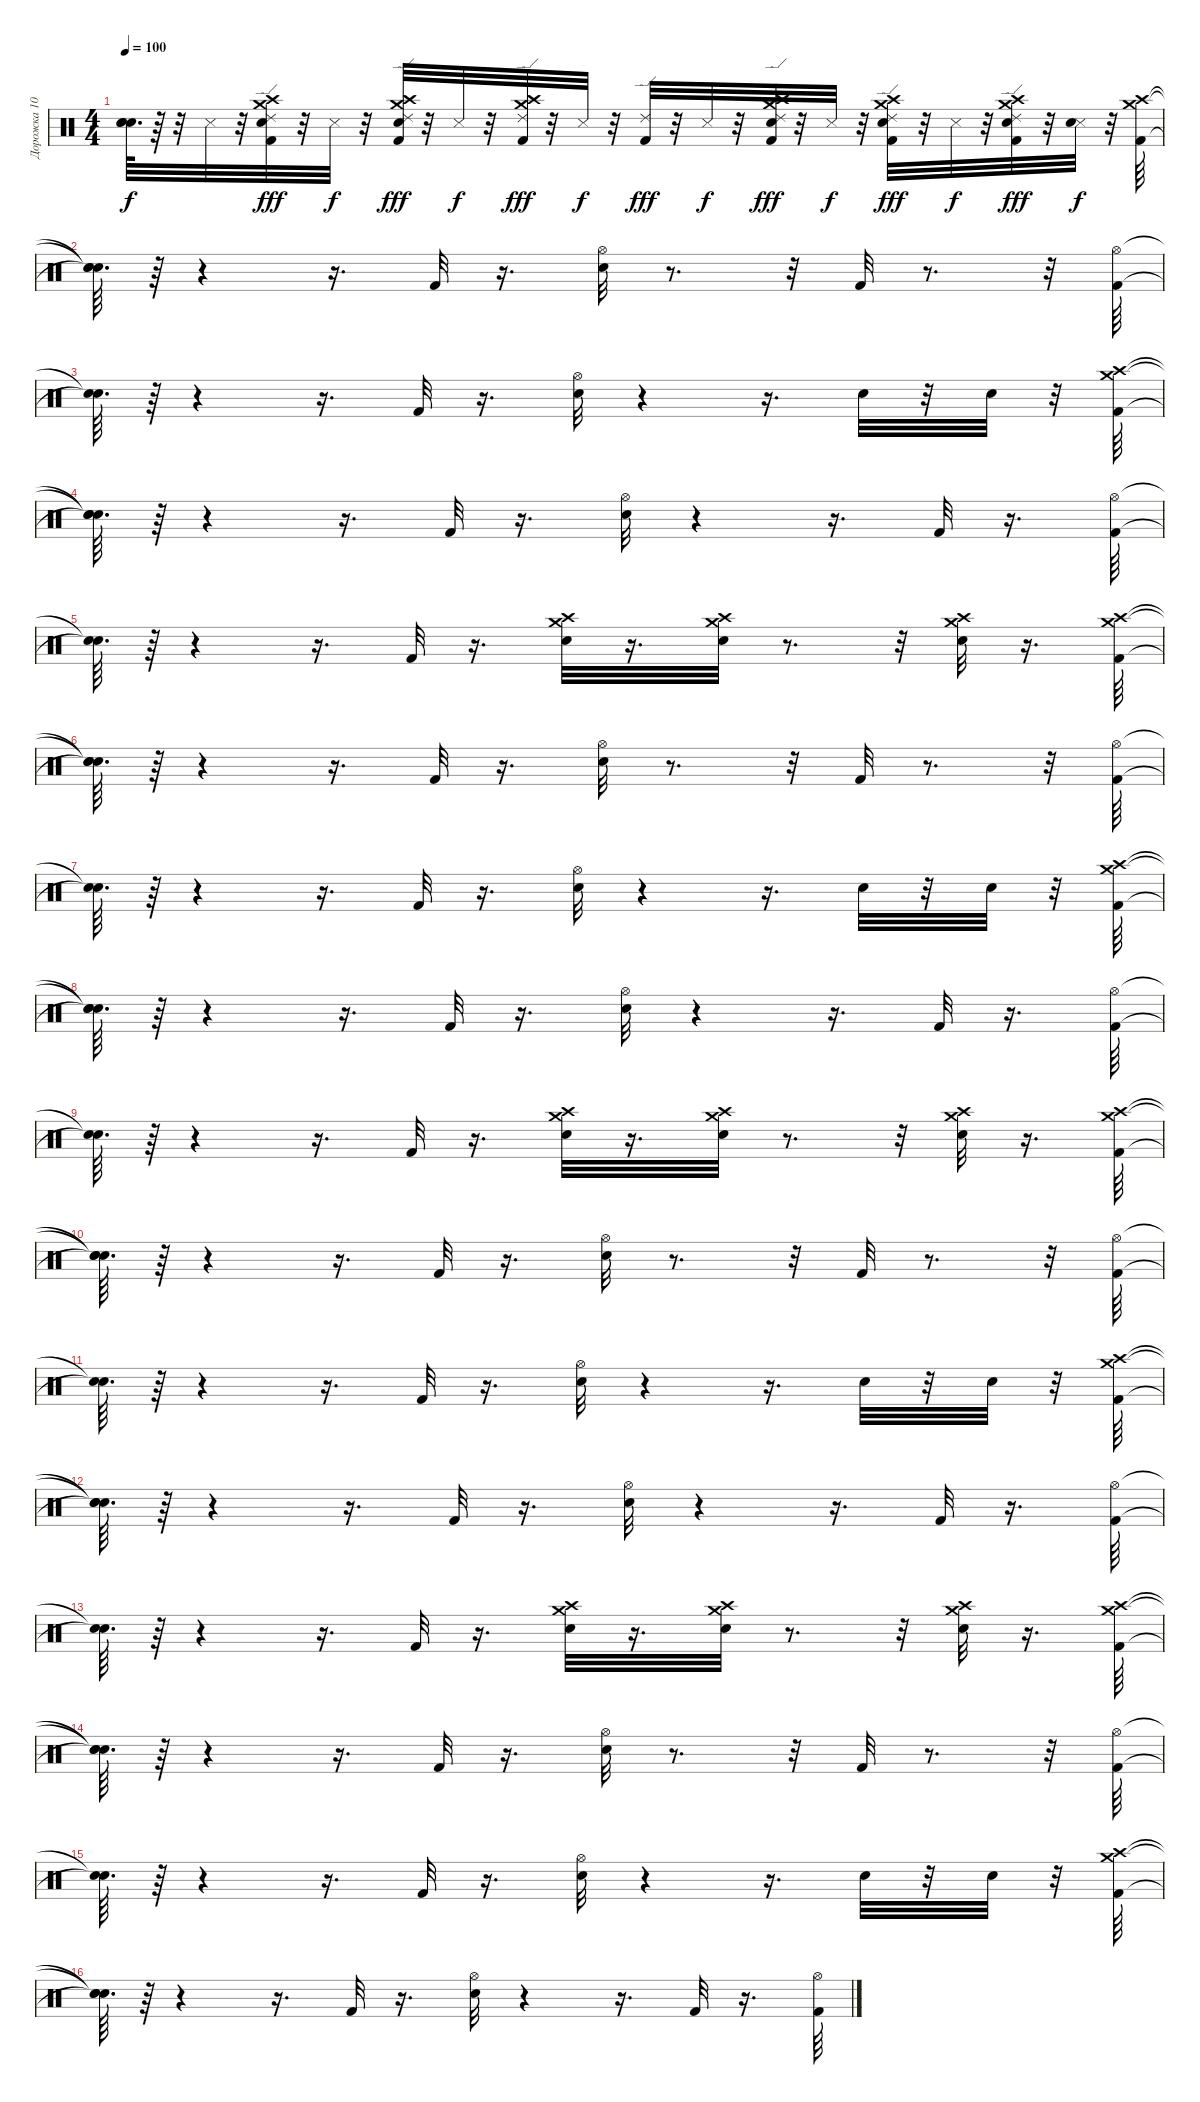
\track ("Дорожка 10" "Дорожка 10") {instrument percussion}
\staff {score}
\articulation defaults
\ts (4 4)
\tempo 100
\clef neutral
\ks c
("Snare (hit)"{t} "Snare (hit)"{t} "Snare (hit)"{t}).64{d dy f} r.64 r.32 "Metronome (hit)".32 r.32 ("Kick (hit) 2" "Crash medium (hit)" "Crash high (hit)" "Snare (hit) 2" "Ride (edge) 2").32{dy fff} r.32 "Metronome (hit)".32{dy f} r.32 ("Kick (hit) 2" "Crash high (hit)" "Crash medium (hit)" "Snare (hit) 2" "Ride (edge) 2").32{dy fff} r.32 "Metronome (hit)".32{dy f} r.32 ("Kick (hit) 2" "Crash medium (hit)" "Crash high (hit)" "Ride (edge) 2").32{dy fff} r.32 "Metronome (hit)".32{dy f} r.32 ("Kick (hit) 2" "Ride (edge) 2").32{dy fff} r.32 "Metronome (hit)".32{dy f} r.32 ("Kick (hit) 2" "Crash medium (hit)" "Crash high (hit)" "Snare (hit) 2" "Ride (edge) 2").32{dy fff} r.32 "Metronome (hit)".32{dy f} r.32 ("Kick (hit) 2" "Crash medium (hit)" "Crash high (hit)" "Snare (hit) 2" "Ride (edge) 2").32{dy fff} r.32 "Metronome (hit)".32{dy f} r.32 ("Kick (hit) 2" "Snare (hit) 2" "Crash medium (hit)" "Crash high (hit)" "Ride (edge) 2").32{dy fff} r.32 ("Metronome (hit)" "Snare (hit) 2").32{dy f} r.32 ("Crash medium (hit)" "Crash high (hit)" "Kick (hit) 2").64 |
("Snare (hit)"{t} "Snare (hit)"{t} "Snare (hit)"{t}).64{d} r.64 r.4 r.16{d} "Kick (hit) 2".32 r.16{d} ("Snare (hit) 2" "Hi-Hat (open)").32 r.8{d} r.32 "Kick (hit) 2".32 r.8{d} r.32 ("Hi-Hat (open)" "Kick (hit) 2").64 |
("Snare (hit)"{t} "Snare (hit)"{t}).64{d} r.64 r.4 r.16{d} "Kick (hit) 2".32 r.16{d} ("Snare (hit) 2" "Hi-Hat (open)").32 r.4 r.16{d} "Snare (hit) 2".32 r.32 "Snare (hit) 2".32 r.32 ("Crash high (hit)" "Crash medium (hit)" "Kick (hit) 2").64 |
("Snare (hit)"{t} "Snare (hit)"{t} "Snare (hit)"{t}).64{d} r.64 r.4 r.16{d} "Kick (hit) 2".32 r.16{d} ("Hi-Hat (open)" "Snare (hit) 2").32 r.4 r.16{d} "Kick (hit) 2".32 r.16{d} ("Hi-Hat (open)" "Kick (hit) 2").64 |
("Snare (hit)"{t} "Snare (hit)"{t}).64{d} r.64 r.4 r.16{d} "Kick (hit) 2".32 r.16{d} ("Crash high (hit)" "Crash medium (hit)" "Snare (hit) 2").32 r.16{d} ("Crash high (hit)" "Crash medium (hit)" "Snare (hit) 2").32 r.8{d} r.32 ("Crash medium (hit)" "Crash high (hit)" "Snare (hit) 2").32 r.16{d} ("Crash medium (hit)" "Crash high (hit)" "Kick (hit) 2").64 |
("Snare (hit)"{t} "Snare (hit)"{t} "Snare (hit)"{t}).64{d} r.64 r.4 r.16{d} "Kick (hit) 2".32 r.16{d} ("Snare (hit) 2" "Hi-Hat (open)").32 r.8{d} r.32 "Kick (hit) 2".32 r.8{d} r.32 ("Hi-Hat (open)" "Kick (hit) 2").64 |
("Snare (hit)"{t} "Snare (hit)"{t}).64{d} r.64 r.4 r.16{d} "Kick (hit) 2".32 r.16{d} ("Snare (hit) 2" "Hi-Hat (open)").32 r.4 r.16{d} "Snare (hit) 2".32 r.32 "Snare (hit) 2".32 r.32 ("Crash high (hit)" "Crash medium (hit)" "Kick (hit) 2").64 |
("Snare (hit)"{t} "Snare (hit)"{t} "Snare (hit)"{t}).64{d} r.64 r.4 r.16{d} "Kick (hit) 2".32 r.16{d} ("Hi-Hat (open)" "Snare (hit) 2").32 r.4 r.16{d} "Kick (hit) 2".32 r.16{d} ("Hi-Hat (open)" "Kick (hit) 2").64 |
("Snare (hit)"{t} "Snare (hit)"{t}).64{d} r.64 r.4 r.16{d} "Kick (hit) 2".32 r.16{d} ("Crash high (hit)" "Crash medium (hit)" "Snare (hit) 2").32 r.16{d} ("Crash high (hit)" "Crash medium (hit)" "Snare (hit) 2").32 r.8{d} r.32 ("Crash medium (hit)" "Crash high (hit)" "Snare (hit) 2").32 r.16{d} ("Crash medium (hit)" "Crash high (hit)" "Kick (hit) 2").64 |
("Snare (hit)"{t} "Snare (hit)"{t} "Snare (hit)"{t}).64{d} r.64 r.4 r.16{d} "Kick (hit) 2".32 r.16{d} ("Snare (hit) 2" "Hi-Hat (open)").32 r.8{d} r.32 "Kick (hit) 2".32 r.8{d} r.32 ("Hi-Hat (open)" "Kick (hit) 2").64 |
("Snare (hit)"{t} "Snare (hit)"{t}).64{d} r.64 r.4 r.16{d} "Kick (hit) 2".32 r.16{d} ("Snare (hit) 2" "Hi-Hat (open)").32 r.4 r.16{d} "Snare (hit) 2".32 r.32 "Snare (hit) 2".32 r.32 ("Crash high (hit)" "Crash medium (hit)" "Kick (hit) 2").64 |
("Snare (hit)"{t} "Snare (hit)"{t} "Snare (hit)"{t}).64{d} r.64 r.4 r.16{d} "Kick (hit) 2".32 r.16{d} ("Hi-Hat (open)" "Snare (hit) 2").32 r.4 r.16{d} "Kick (hit) 2".32 r.16{d} ("Hi-Hat (open)" "Kick (hit) 2").64 |
("Snare (hit)"{t} "Snare (hit)"{t}).64{d} r.64 r.4 r.16{d} "Kick (hit) 2".32 r.16{d} ("Crash high (hit)" "Crash medium (hit)" "Snare (hit) 2").32 r.16{d} ("Crash high (hit)" "Crash medium (hit)" "Snare (hit) 2").32 r.8{d} r.32 ("Crash medium (hit)" "Crash high (hit)" "Snare (hit) 2").32 r.16{d} ("Crash medium (hit)" "Crash high (hit)" "Kick (hit) 2").64 |
("Snare (hit)"{t} "Snare (hit)"{t} "Snare (hit)"{t}).64{d} r.64 r.4 r.16{d} "Kick (hit) 2".32 r.16{d} ("Snare (hit) 2" "Hi-Hat (open)").32 r.8{d} r.32 "Kick (hit) 2".32 r.8{d} r.32 ("Hi-Hat (open)" "Kick (hit) 2").64{volume 16 balance 8} |
("Snare (hit)"{t} "Snare (hit)"{t}).64{d} r.64 r.4 r.16{d} "Kick (hit) 2".32 r.16{d} ("Snare (hit) 2" "Hi-Hat (open)").32 r.4 r.16{d} "Snare (hit) 2".32 r.32 "Snare (hit) 2".32 r.32 ("Crash high (hit)" "Crash medium (hit)" "Kick (hit) 2").64 |
("Snare (hit)"{t} "Snare (hit)"{t} "Snare (hit)"{t}).64{d} r.64 r.4 r.16{d} "Kick (hit) 2".32 r.16{d} ("Hi-Hat (open)" "Snare (hit) 2").32 r.4 r.16{d} "Kick (hit) 2".32 r.16{d} ("Hi-Hat (open)" "Kick (hit) 2").64
